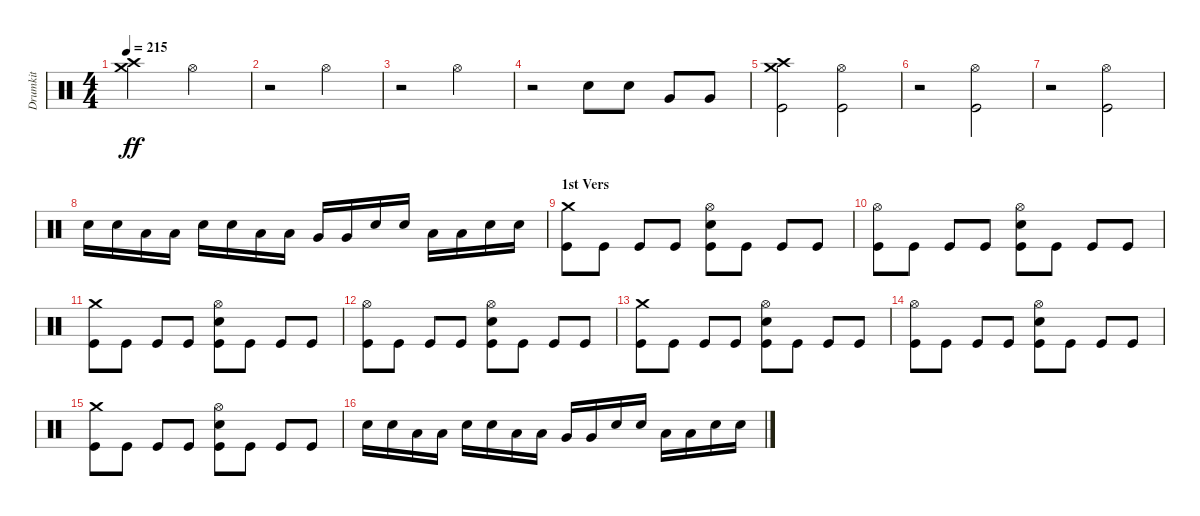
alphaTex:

\track ("Drumkit" "Drumkit") {instrument percussion}
\staff {score}
\articulation defaults
\ts (4 4)
\tempo 215
\clef neutral
\ks c
("Crash medium (hit)" "Crash high (hit)").2{dy ff} "Hi-Hat (open)".2 |
r.2 "Hi-Hat (open)".2 |
r.2 "Hi-Hat (open)".2 |
r.2 "Snare (hit) 2".8 "Snare (hit) 2".8 "Very Low Tom (hit)".8 "Very Low Tom (hit)".8 |
("Crash medium (hit)" "Crash high (hit)" "Kick (hit)").2 ("Hi-Hat (open)" "Kick (hit)").2 |
r.2 ("Hi-Hat (open)" "Kick (hit)").2 |
r.2 ("Hi-Hat (open)" "Kick (hit)").2 |
"Snare (hit) 2".16 "Snare (hit) 2".16 "Low Tom (hit)".16 "Low Tom (hit)".16 "Snare (hit) 2".16 "Snare (hit) 2".16 "Low Tom (hit)".16 "Low Tom (hit)".16 "Very Low Tom (hit)".16 "Very Low Tom (hit)".16 "Snare (hit) 2".16 "Snare (hit) 2".16 "Low Floor Tom (hit)".16 "Low Floor Tom (hit)".16 "Snare (hit) 2".16 "Snare (hit) 2".16 |
\section ("" "1st Vers")
("Kick (hit)" "Crash medium (hit)").8 "Kick (hit)".8 "Kick (hit)".8 "Kick (hit)".8 ("Kick (hit)" "Hi-Hat (open)" "Snare (hit) 2").8 "Kick (hit)".8 "Kick (hit)".8 "Kick (hit)".8 |
("Kick (hit)" "Hi-Hat (open)").8 "Kick (hit)".8 "Kick (hit)".8 "Kick (hit)".8 ("Kick (hit)" "Snare (hit) 2" "Hi-Hat (open)").8 "Kick (hit)".8 "Kick (hit)".8 "Kick (hit)".8 |
("Kick (hit)" "Crash medium (hit)").8 "Kick (hit)".8 "Kick (hit)".8 "Kick (hit)".8 ("Kick (hit)" "Hi-Hat (open)" "Snare (hit) 2").8 "Kick (hit)".8 "Kick (hit)".8 "Kick (hit)".8 |
("Kick (hit)" "Hi-Hat (open)").8 "Kick (hit)".8 "Kick (hit)".8 "Kick (hit)".8 ("Kick (hit)" "Hi-Hat (open)" "Snare (hit) 2").8 "Kick (hit)".8 "Kick (hit)".8 "Kick (hit)".8 |
("Kick (hit)" "Crash medium (hit)").8 "Kick (hit)".8 "Kick (hit)".8 "Kick (hit)".8 ("Kick (hit)" "Hi-Hat (open)" "Snare (hit) 2").8 "Kick (hit)".8 "Kick (hit)".8 "Kick (hit)".8 |
("Kick (hit)" "Hi-Hat (open)").8 "Kick (hit)".8 "Kick (hit)".8 "Kick (hit)".8 ("Kick (hit)" "Hi-Hat (open)" "Snare (hit) 2").8 "Kick (hit)".8 "Kick (hit)".8 "Kick (hit)".8 |
("Kick (hit)" "Crash medium (hit)").8 "Kick (hit)".8 "Kick (hit)".8 "Kick (hit)".8 ("Kick (hit)" "Hi-Hat (open)" "Snare (hit) 2").8 "Kick (hit)".8 "Kick (hit)".8 "Kick (hit)".8 |
"Snare (hit) 2".16 "Snare (hit) 2".16 "Low Tom (hit)".16 "Low Tom (hit)".16 "Snare (hit) 2".16 "Snare (hit) 2".16 "Low Tom (hit)".16 "Low Tom (hit)".16 "Very Low Tom (hit)".16 "Very Low Tom (hit)".16 "Snare (hit) 2".16 "Snare (hit) 2".16 "Low Floor Tom (hit)".16 "Low Floor Tom (hit)".16 "Snare (hit) 2".16 "Snare (hit) 2".16
